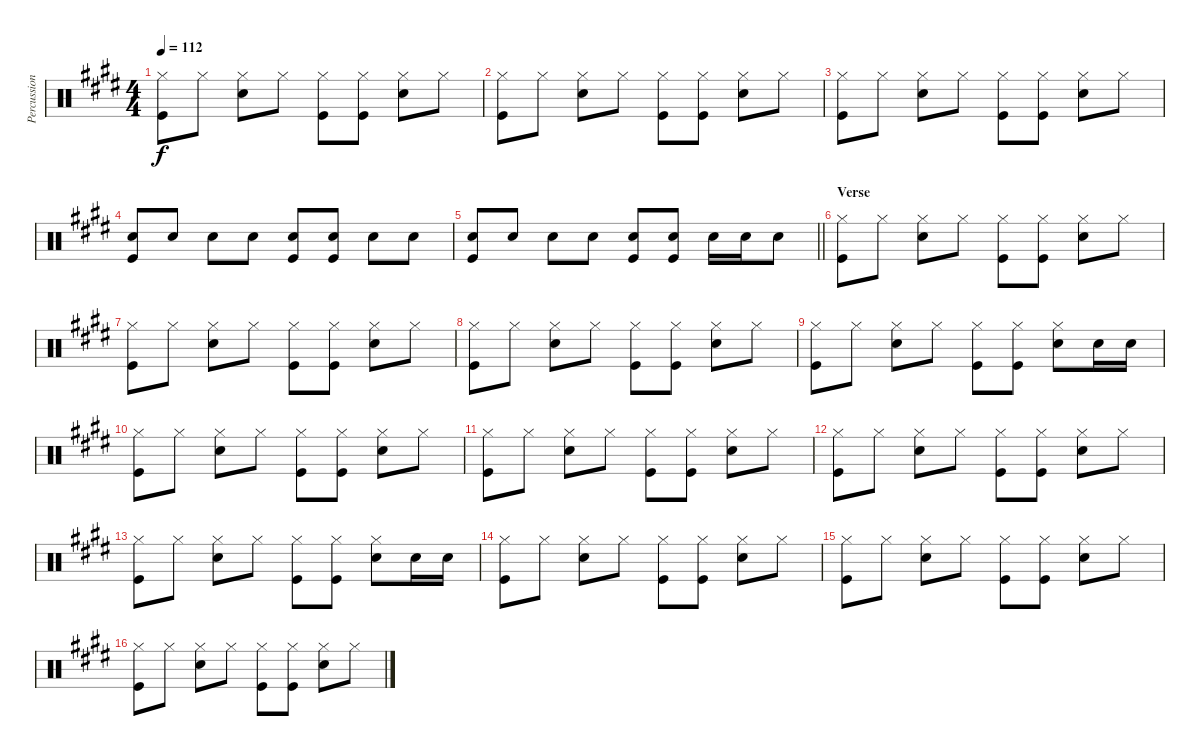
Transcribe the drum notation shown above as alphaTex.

\track ("Percussion" "Percussion") {instrument percussion}
\staff {score}
\articulation defaults
\ts (4 4)
\tempo 112
\clef neutral
\ks e
("Hi-Hat (closed)" "Kick (hit)").8{dy f} "Hi-Hat (closed)".8 ("Hi-Hat (closed)" "Snare (hit) 2").8 "Hi-Hat (closed)".8 ("Hi-Hat (closed)" "Kick (hit)").8 ("Hi-Hat (closed)" "Kick (hit)").8 ("Hi-Hat (closed)" "Snare (hit) 2").8 "Hi-Hat (closed)".8 |
("Hi-Hat (closed)" "Kick (hit)").8 "Hi-Hat (closed)".8 ("Hi-Hat (closed)" "Snare (hit) 2").8 "Hi-Hat (closed)".8 ("Hi-Hat (closed)" "Kick (hit)").8 ("Hi-Hat (closed)" "Kick (hit)").8 ("Hi-Hat (closed)" "Snare (hit) 2").8 "Hi-Hat (closed)".8 |
("Hi-Hat (closed)" "Kick (hit)").8 "Hi-Hat (closed)".8 ("Hi-Hat (closed)" "Snare (hit) 2").8 "Hi-Hat (closed)".8 ("Hi-Hat (closed)" "Kick (hit)").8 ("Hi-Hat (closed)" "Kick (hit)").8 ("Hi-Hat (closed)" "Snare (hit) 2").8 "Hi-Hat (closed)".8 |
("Snare (hit) 2" "Kick (hit)").8 "Snare (hit) 2".8 "Snare (hit) 2".8 "Snare (hit) 2".8 ("Snare (hit) 2" "Kick (hit)").8 ("Snare (hit) 2" "Kick (hit)").8 "Snare (hit) 2".8 "Snare (hit) 2".8 |
\barLineRight lightlight
("Snare (hit) 2" "Kick (hit)").8 "Snare (hit) 2".8 "Snare (hit) 2".8 "Snare (hit) 2".8 ("Snare (hit) 2" "Kick (hit)").8 ("Snare (hit) 2" "Kick (hit)").8 "Snare (hit) 2".16 "Snare (hit) 2".16 "Snare (hit) 2".8 |
\section ("" "Verse")
("Hi-Hat (closed)" "Kick (hit)").8 "Hi-Hat (closed)".8 ("Hi-Hat (closed)" "Snare (hit) 2").8 "Hi-Hat (closed)".8 ("Hi-Hat (closed)" "Kick (hit)").8 ("Hi-Hat (closed)" "Kick (hit)").8 ("Hi-Hat (closed)" "Snare (hit) 2").8 "Hi-Hat (closed)".8 |
("Hi-Hat (closed)" "Kick (hit)").8 "Hi-Hat (closed)".8 ("Hi-Hat (closed)" "Snare (hit) 2").8 "Hi-Hat (closed)".8 ("Hi-Hat (closed)" "Kick (hit)").8 ("Hi-Hat (closed)" "Kick (hit)").8 ("Hi-Hat (closed)" "Snare (hit) 2").8 "Hi-Hat (closed)".8 |
("Hi-Hat (closed)" "Kick (hit)").8 "Hi-Hat (closed)".8 ("Hi-Hat (closed)" "Snare (hit) 2").8 "Hi-Hat (closed)".8 ("Hi-Hat (closed)" "Kick (hit)").8 ("Hi-Hat (closed)" "Kick (hit)").8 ("Hi-Hat (closed)" "Snare (hit) 2").8 "Hi-Hat (closed)".8 |
("Hi-Hat (closed)" "Kick (hit)").8 "Hi-Hat (closed)".8 ("Hi-Hat (closed)" "Snare (hit) 2").8 "Hi-Hat (closed)".8 ("Hi-Hat (closed)" "Kick (hit)").8 ("Hi-Hat (closed)" "Kick (hit)").8 ("Hi-Hat (closed)" "Snare (hit) 2").8 "Snare (hit) 2".16 "Snare (hit) 2".16 |
("Hi-Hat (closed)" "Kick (hit)").8 "Hi-Hat (closed)".8 ("Hi-Hat (closed)" "Snare (hit) 2").8 "Hi-Hat (closed)".8 ("Hi-Hat (closed)" "Kick (hit)").8 ("Hi-Hat (closed)" "Kick (hit)").8 ("Hi-Hat (closed)" "Snare (hit) 2").8 "Hi-Hat (closed)".8 |
("Hi-Hat (closed)" "Kick (hit)").8 "Hi-Hat (closed)".8 ("Hi-Hat (closed)" "Snare (hit) 2").8 "Hi-Hat (closed)".8 ("Hi-Hat (closed)" "Kick (hit)").8 ("Hi-Hat (closed)" "Kick (hit)").8 ("Hi-Hat (closed)" "Snare (hit) 2").8 "Hi-Hat (closed)".8 |
("Hi-Hat (closed)" "Kick (hit)").8 "Hi-Hat (closed)".8 ("Hi-Hat (closed)" "Snare (hit) 2").8 "Hi-Hat (closed)".8 ("Hi-Hat (closed)" "Kick (hit)").8 ("Hi-Hat (closed)" "Kick (hit)").8 ("Hi-Hat (closed)" "Snare (hit) 2").8 "Hi-Hat (closed)".8 |
("Hi-Hat (closed)" "Kick (hit)").8 "Hi-Hat (closed)".8 ("Hi-Hat (closed)" "Snare (hit) 2").8 "Hi-Hat (closed)".8 ("Hi-Hat (closed)" "Kick (hit)").8 ("Hi-Hat (closed)" "Kick (hit)").8 ("Hi-Hat (closed)" "Snare (hit) 2").8 "Snare (hit) 2".16 "Snare (hit) 2".16 |
("Hi-Hat (closed)" "Kick (hit)").8 "Hi-Hat (closed)".8 ("Hi-Hat (closed)" "Snare (hit) 2").8 "Hi-Hat (closed)".8 ("Hi-Hat (closed)" "Kick (hit)").8 ("Hi-Hat (closed)" "Kick (hit)").8 ("Hi-Hat (closed)" "Snare (hit) 2").8 "Hi-Hat (closed)".8 |
("Hi-Hat (closed)" "Kick (hit)").8 "Hi-Hat (closed)".8 ("Hi-Hat (closed)" "Snare (hit) 2").8 "Hi-Hat (closed)".8 ("Hi-Hat (closed)" "Kick (hit)").8 ("Hi-Hat (closed)" "Kick (hit)").8 ("Hi-Hat (closed)" "Snare (hit) 2").8 "Hi-Hat (closed)".8 |
("Hi-Hat (closed)" "Kick (hit)").8 "Hi-Hat (closed)".8 ("Hi-Hat (closed)" "Snare (hit) 2").8 "Hi-Hat (closed)".8 ("Hi-Hat (closed)" "Kick (hit)").8 ("Hi-Hat (closed)" "Kick (hit)").8 ("Hi-Hat (closed)" "Snare (hit) 2").8 "Hi-Hat (closed)".8
